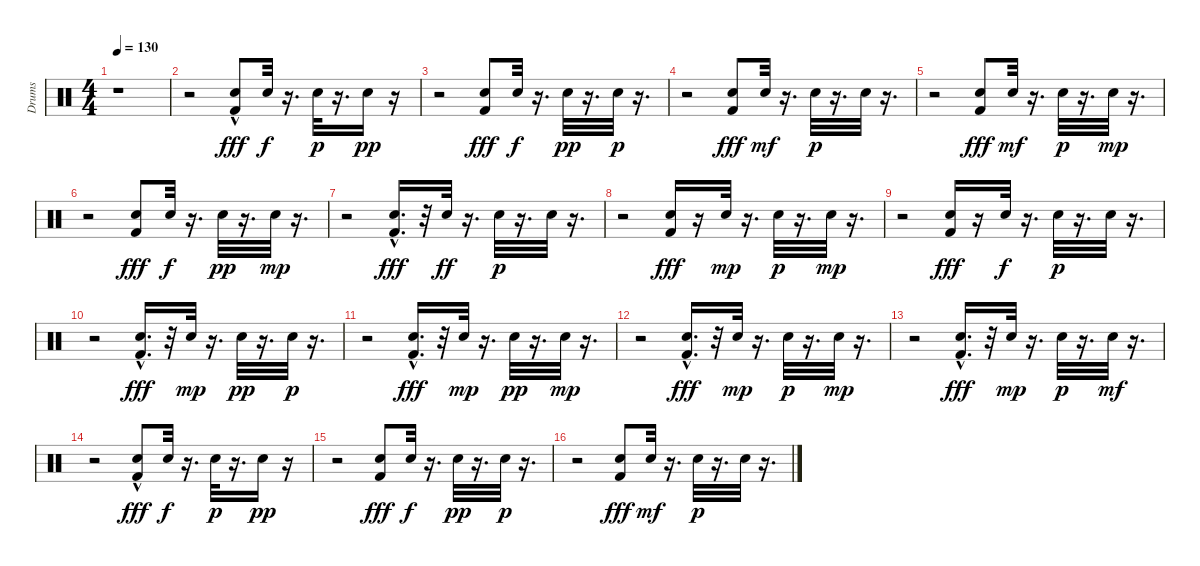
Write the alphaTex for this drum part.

\track ("Drums" "Drums") {instrument percussion}
\staff {score}
\articulation defaults
\ts (4 4)
\tempo 130
\clef neutral
\ks c
r.1{dy fff} |
r.2 ("Hand Clap (hit)" "Kick (hit) 2"{hac}).8 "Hand Clap (hit)".32{dy f} r.16{d} "Hand Clap (hit)".32{dy p} r.16{d} "Hand Clap (hit)".16{dy pp} r.16 |
r.2 ("Hand Clap (hit)" "Kick (hit) 2").8{dy fff} "Hand Clap (hit)".32{dy f} r.16{d} "Hand Clap (hit)".32{dy pp} r.16{d} "Hand Clap (hit)".32{dy p} r.16{d} |
r.2 ("Hand Clap (hit)" "Kick (hit) 2").8{dy fff} "Hand Clap (hit)".32{dy mf} r.16{d} "Hand Clap (hit)".32{dy p} r.16{d} "Hand Clap (hit)".32 r.16{d} |
r.2 ("Hand Clap (hit)" "Kick (hit) 2").8{dy fff} "Hand Clap (hit)".32{dy mf} r.16{d} "Hand Clap (hit)".32{dy p} r.16{d} "Hand Clap (hit)".32{dy mp} r.16{d} |
r.2 ("Hand Clap (hit)" "Kick (hit) 2").8{dy fff} "Hand Clap (hit)".32{dy f} r.16{d} "Hand Clap (hit)".32{dy pp} r.16{d} "Hand Clap (hit)".32{dy mp} r.16{d} |
r.2 ("Hand Clap (hit)" "Kick (hit) 2"{hac}).16{d dy fff} r.32 "Hand Clap (hit)".32{dy ff} r.16{d} "Hand Clap (hit)".32{dy p} r.16{d} "Hand Clap (hit)".32 r.16{d} |
r.2 ("Hand Clap (hit)" "Kick (hit) 2").16{dy fff} r.16 "Hand Clap (hit)".32{dy mp} r.16{d} "Hand Clap (hit)".32{dy p} r.16{d} "Hand Clap (hit)".32{dy mp} r.16{d} |
r.2 ("Hand Clap (hit)" "Kick (hit) 2").16{dy fff} r.16 "Hand Clap (hit)".32{dy f} r.16{d} "Hand Clap (hit)".32{dy p} r.16{d} "Hand Clap (hit)".32 r.16{d} |
r.2 ("Kick (hit) 2"{hac} "Hand Clap (hit)").16{d dy fff} r.32 "Hand Clap (hit)".32{dy mp} r.16{d} "Hand Clap (hit)".32{dy pp} r.16{d} "Hand Clap (hit)".32{dy p} r.16{d} |
r.2 ("Hand Clap (hit)" "Kick (hit) 2"{hac}).16{d dy fff} r.32 "Hand Clap (hit)".32{dy mp} r.16{d} "Hand Clap (hit)".32{dy pp} r.16{d} "Hand Clap (hit)".32{dy mp} r.16{d} |
r.2 ("Hand Clap (hit)" "Kick (hit) 2"{hac}).16{d dy fff} r.32 "Hand Clap (hit)".32{dy mp} r.16{d} "Hand Clap (hit)".32{dy p} r.16{d} "Hand Clap (hit)".32{dy mp} r.16{d} |
r.2 ("Kick (hit) 2"{hac} "Hand Clap (hit)").16{d dy fff} r.32 "Hand Clap (hit)".32{dy mp} r.16{d} "Hand Clap (hit)".32{dy p} r.16{d} "Hand Clap (hit)".32{dy mf} r.16{d} |
r.2 ("Hand Clap (hit)" "Kick (hit) 2"{hac}).8{dy fff} "Hand Clap (hit)".32{dy f} r.16{d} "Hand Clap (hit)".32{dy p} r.16{d} "Hand Clap (hit)".16{dy pp} r.16 |
r.2 ("Hand Clap (hit)" "Kick (hit) 2").8{dy fff} "Hand Clap (hit)".32{dy f} r.16{d} "Hand Clap (hit)".32{dy pp} r.16{d} "Hand Clap (hit)".32{dy p} r.16{d} |
r.2 ("Hand Clap (hit)" "Kick (hit) 2").8{dy fff} "Hand Clap (hit)".32{dy mf} r.16{d} "Hand Clap (hit)".32{dy p} r.16{d} "Hand Clap (hit)".32 r.16{d}
